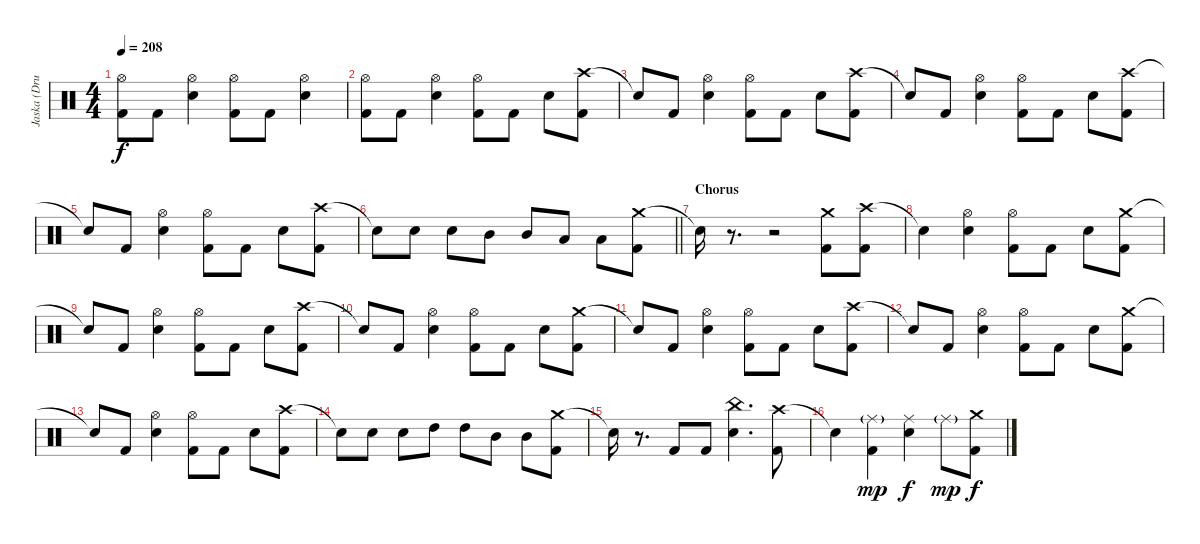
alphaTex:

\track ("Jaska (Drums)" "Jaska (Dru") {instrument percussion}
\staff {score}
\articulation defaults
\ts (4 4)
\tempo 208
\clef neutral
\ks c
("Hi-Hat (open)" "Kick (hit) 2").8{dy f} "Kick (hit) 2".8 ("Hi-Hat (open)" "Electric Snare (hit)").4 ("Hi-Hat (open)" "Kick (hit) 2").8 "Kick (hit) 2".8 ("Hi-Hat (open)" "Electric Snare (hit)").4 |
("Hi-Hat (open)" "Kick (hit) 2").8 "Kick (hit) 2".8 ("Hi-Hat (open)" "Electric Snare (hit)").4 ("Hi-Hat (open)" "Kick (hit) 2").8 "Kick (hit) 2".8 "Electric Snare (hit)".8 ("Crash high (hit)" "Kick (hit) 2").8 |
"Snare (hit)"{t}.8 "Kick (hit) 2".8 ("Hi-Hat (open)" "Electric Snare (hit)").4 ("Hi-Hat (open)" "Kick (hit) 2").8 "Kick (hit) 2".8 "Electric Snare (hit)".8 ("Crash high (hit)" "Kick (hit) 2").8 |
"Snare (hit)"{t}.8 "Kick (hit) 2".8 ("Hi-Hat (open)" "Electric Snare (hit)").4 ("Hi-Hat (open)" "Kick (hit) 2").8 "Kick (hit) 2".8 "Electric Snare (hit)".8 ("Crash high (hit)" "Kick (hit) 2").8 |
"Snare (hit)"{t}.8 "Kick (hit) 2".8 ("Hi-Hat (open)" "Electric Snare (hit)").4 ("Hi-Hat (open)" "Kick (hit) 2").8 "Kick (hit) 2".8 "Electric Snare (hit)".8 ("Crash high (hit)" "Kick (hit) 2").8 |
\barLineRight lightlight "Snare (hit)"{t}.8 "Electric Snare (hit)".8 "Electric Snare (hit)".8 "Mid Tom (hit)".8 "Mid Tom (hit)".8 "Low Tom (hit)".8 "Low Tom (hit)".8
("Crash medium (hit)" "Kick (hit) 2").8 |
\section ("" "Chorus")
"Snare (hit)"{t}.16 r.8{d volume 0} r.2 ("Crash medium (hit)" "Kick (hit) 2").8{volume 16} ("Crash high (hit)" "Kick (hit) 2").8 |
"Snare (hit)"{t}.4 ("Hi-Hat (open)" "Electric Snare (hit)").4 ("Hi-Hat (open)" "Kick (hit) 2").8 "Kick (hit) 2".8 "Electric Snare (hit)".8 ("Crash medium (hit)" "Kick (hit) 2").8 |
"Snare (hit)"{t}.8 "Kick (hit) 2".8 ("Hi-Hat (open)" "Electric Snare (hit)").4 ("Hi-Hat (open)" "Kick (hit) 2").8 "Kick (hit) 2".8 "Electric Snare (hit)".8 ("Crash high (hit)" "Kick (hit) 2").8 |
"Snare (hit)"{t}.8 "Kick (hit) 2".8 ("Hi-Hat (open)" "Electric Snare (hit)").4 ("Hi-Hat (open)" "Kick (hit) 2").8 "Kick (hit) 2".8 "Electric Snare (hit)".8 ("Crash medium (hit)" "Kick (hit) 2").8 |
"Snare (hit)"{t}.8 "Kick (hit) 2".8 ("Hi-Hat (open)" "Electric Snare (hit)").4 ("Hi-Hat (open)" "Kick (hit) 2").8 "Kick (hit) 2".8 "Electric Snare (hit)".8 ("Crash high (hit)" "Kick (hit) 2").8 |
"Snare (hit)"{t}.8 "Kick (hit) 2".8 ("Hi-Hat (open)" "Electric Snare (hit)").4 ("Hi-Hat (open)" "Kick (hit) 2").8 "Kick (hit) 2".8 "Electric Snare (hit)".8 ("Crash medium (hit)" "Kick (hit) 2").8 |
"Snare (hit)"{t}.8 "Kick (hit) 2".8 ("Hi-Hat (open)" "Electric Snare (hit)").4 ("Hi-Hat (open)" "Kick (hit) 2").8 "Kick (hit) 2".8 "Electric Snare (hit)".8 ("Crash high (hit)" "Kick (hit) 2").8 |
"Snare (hit)"{t}.8 "Electric Snare (hit)".8 "Electric Snare (hit)".8 "High Tom (hit)".8 "High Tom (hit)".8 "Mid Tom (hit)".8 "Mid Tom (hit)".8 ("Crash medium (hit)" "Kick (hit) 2").8 |
"Snare (hit)"{t}.16{volume 0} r.8{d} "Kick (hit) 2".8{volume 16} "Kick (hit) 2".8 ("China (hit)" "Electric Snare (hit)").4{d} ("Crash high (hit)" "Kick (hit) 2").8 |
"Snare (hit)"{t}.4 ("Ride (middle)"{g} "Kick (hit) 2").4{dy mp} ("Ride (middle)" "Electric Snare (hit)").4{dy f} "Ride (middle)"{g}.8{dy mp} ("Crash medium (hit)" "Kick (hit) 2").8{dy f}
